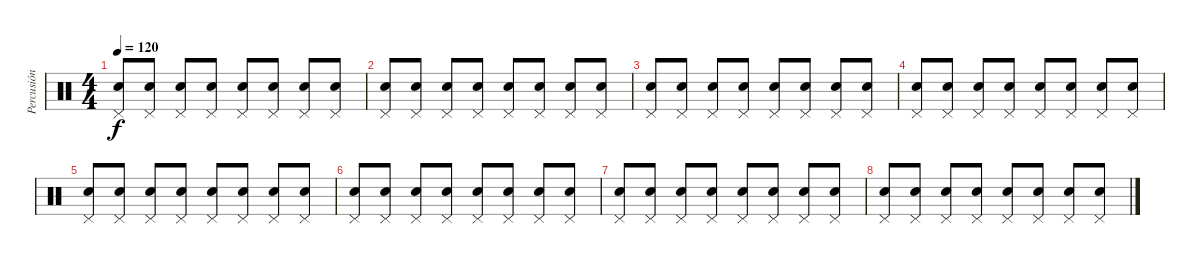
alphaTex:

\track ("Percusión" "Percusión") {instrument percussion}
\staff {score}
\articulation defaults
\ts (4 4)
\tempo 120
\clef neutral
\ks c
("Snare (hit) 2" "Pedal Hi-Hat (hit)").8{dy f} ("Electric Snare (hit)" "Pedal Hi-Hat (hit)").8 ("Snare (hit) 2" "Pedal Hi-Hat (hit)").8 ("Electric Snare (hit)" "Pedal Hi-Hat (hit)").8 ("Snare (hit) 2" "Pedal Hi-Hat (hit)").8 ("Electric Snare (hit)" "Pedal Hi-Hat (hit)").8 ("Snare (hit) 2" "Pedal Hi-Hat (hit)").8 ("Electric Snare (hit)" "Pedal Hi-Hat (hit)").8 |
("Snare (hit) 2" "Pedal Hi-Hat (hit)").8 ("Electric Snare (hit)" "Pedal Hi-Hat (hit)").8 ("Snare (hit) 2" "Pedal Hi-Hat (hit)").8 ("Electric Snare (hit)" "Pedal Hi-Hat (hit)").8 ("Snare (hit) 2" "Pedal Hi-Hat (hit)").8 ("Electric Snare (hit)" "Pedal Hi-Hat (hit)").8 ("Snare (hit) 2" "Pedal Hi-Hat (hit)").8 ("Electric Snare (hit)" "Pedal Hi-Hat (hit)").8 |
("Snare (hit) 2" "Pedal Hi-Hat (hit)").8 ("Electric Snare (hit)" "Pedal Hi-Hat (hit)").8 ("Snare (hit) 2" "Pedal Hi-Hat (hit)").8 ("Electric Snare (hit)" "Pedal Hi-Hat (hit)").8 ("Snare (hit) 2" "Pedal Hi-Hat (hit)").8 ("Electric Snare (hit)" "Pedal Hi-Hat (hit)").8 ("Snare (hit) 2" "Pedal Hi-Hat (hit)").8 ("Electric Snare (hit)" "Pedal Hi-Hat (hit)").8 |
("Snare (hit) 2" "Pedal Hi-Hat (hit)").8 ("Electric Snare (hit)" "Pedal Hi-Hat (hit)").8 ("Snare (hit) 2" "Pedal Hi-Hat (hit)").8 ("Electric Snare (hit)" "Pedal Hi-Hat (hit)").8 ("Snare (hit) 2" "Pedal Hi-Hat (hit)").8 ("Electric Snare (hit)" "Pedal Hi-Hat (hit)").8 ("Snare (hit) 2" "Pedal Hi-Hat (hit)").8 ("Electric Snare (hit)" "Pedal Hi-Hat (hit)").8 |
("Snare (hit) 2" "Pedal Hi-Hat (hit)").8 ("Electric Snare (hit)" "Pedal Hi-Hat (hit)").8 ("Snare (hit) 2" "Pedal Hi-Hat (hit)").8 ("Electric Snare (hit)" "Pedal Hi-Hat (hit)").8 ("Snare (hit) 2" "Pedal Hi-Hat (hit)").8 ("Electric Snare (hit)" "Pedal Hi-Hat (hit)").8 ("Snare (hit) 2" "Pedal Hi-Hat (hit)").8 ("Electric Snare (hit)" "Pedal Hi-Hat (hit)").8 |
("Snare (hit) 2" "Pedal Hi-Hat (hit)").8 ("Electric Snare (hit)" "Pedal Hi-Hat (hit)").8 ("Snare (hit) 2" "Pedal Hi-Hat (hit)").8 ("Electric Snare (hit)" "Pedal Hi-Hat (hit)").8 ("Snare (hit) 2" "Pedal Hi-Hat (hit)").8 ("Electric Snare (hit)" "Pedal Hi-Hat (hit)").8 ("Snare (hit) 2" "Pedal Hi-Hat (hit)").8 ("Electric Snare (hit)" "Pedal Hi-Hat (hit)").8 |
("Snare (hit) 2" "Pedal Hi-Hat (hit)").8 ("Electric Snare (hit)" "Pedal Hi-Hat (hit)").8 ("Snare (hit) 2" "Pedal Hi-Hat (hit)").8 ("Electric Snare (hit)" "Pedal Hi-Hat (hit)").8 ("Snare (hit) 2" "Pedal Hi-Hat (hit)").8 ("Electric Snare (hit)" "Pedal Hi-Hat (hit)").8 ("Snare (hit) 2" "Pedal Hi-Hat (hit)").8 ("Electric Snare (hit)" "Pedal Hi-Hat (hit)").8 |
("Snare (hit) 2" "Pedal Hi-Hat (hit)").8 ("Electric Snare (hit)" "Pedal Hi-Hat (hit)").8 ("Snare (hit) 2" "Pedal Hi-Hat (hit)").8 ("Electric Snare (hit)" "Pedal Hi-Hat (hit)").8 ("Snare (hit) 2" "Pedal Hi-Hat (hit)").8 ("Electric Snare (hit)" "Pedal Hi-Hat (hit)").8 ("Snare (hit) 2" "Pedal Hi-Hat (hit)").8 ("Electric Snare (hit)" "Pedal Hi-Hat (hit)").8
